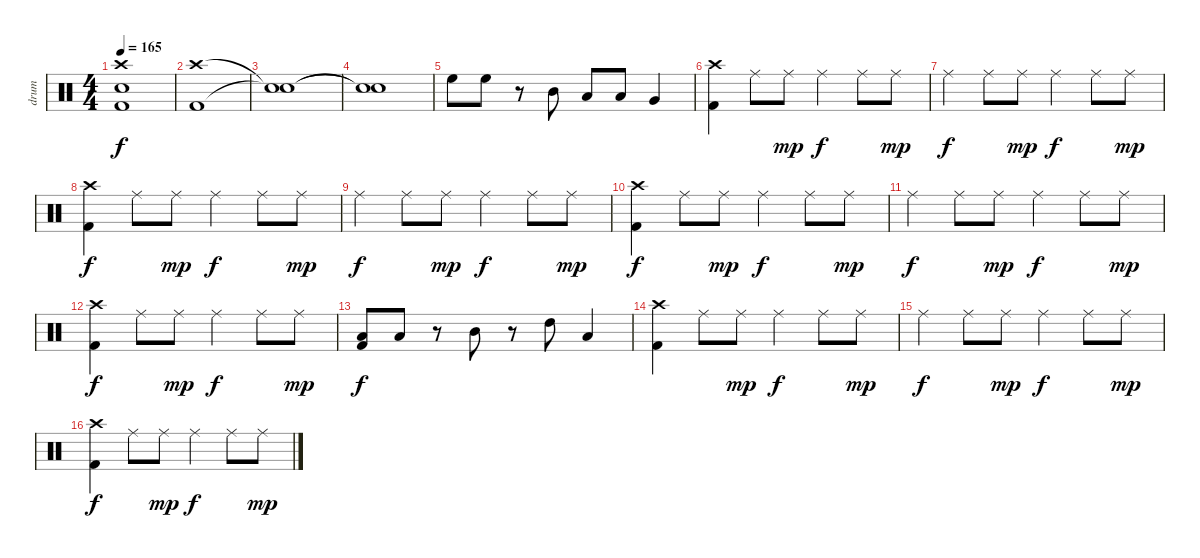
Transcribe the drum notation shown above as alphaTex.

\track ("drum" "drum") {instrument percussion}
\staff {score}
\articulation defaults
\ts (4 4)
\tempo 165
\clef neutral
\ks c
("Crash high (hit)" "Snare (hit) 2" "Kick (hit) 2").1{dy f} |
("Crash high (hit)" "Kick (hit) 2").1 |
("Snare (hit)"{t} "Snare (hit)"{t}).1 |
("Snare (hit)"{t} "Snare (hit)"{t}).1 |
"High Floor Tom (hit)".8 "High Floor Tom (hit)".8 r.8 "Mid Tom (hit)".8 "Low Tom (hit)".8 "Low Tom (hit)".8 "Very Low Tom (hit)".4 |
("Crash high (hit)" "Kick (hit) 2").4 "Ride (middle)".8 "Ride (middle)".8{dy mp} "Ride (middle)".4{dy f} "Ride (middle)".8 "Ride (middle)".8{dy mp} |
"Ride (middle)".4{dy f} "Ride (middle)".8 "Ride (middle)".8{dy mp} "Ride (middle)".4{dy f} "Ride (middle)".8 "Ride (middle)".8{dy mp} |
("Crash high (hit)" "Kick (hit) 2").4{dy f} "Ride (middle)".8 "Ride (middle)".8{dy mp} "Ride (middle)".4{dy f} "Ride (middle)".8 "Ride (middle)".8{dy mp} |
"Ride (middle)".4{dy f} "Ride (middle)".8 "Ride (middle)".8{dy mp} "Ride (middle)".4{dy f} "Ride (middle)".8 "Ride (middle)".8{dy mp} |
("Crash high (hit)" "Kick (hit) 2").4{dy f} "Ride (middle)".8 "Ride (middle)".8{dy mp} "Ride (middle)".4{dy f} "Ride (middle)".8 "Ride (middle)".8{dy mp} |
"Ride (middle)".4{dy f} "Ride (middle)".8 "Ride (middle)".8{dy mp} "Ride (middle)".4{dy f} "Ride (middle)".8 "Ride (middle)".8{dy mp} |
("Crash high (hit)" "Kick (hit) 2").4{dy f} "Ride (middle)".8 "Ride (middle)".8{dy mp} "Ride (middle)".4{dy f} "Ride (middle)".8 "Ride (middle)".8{dy mp} |
("Low Tom (hit)" "Kick (hit) 2").8{dy f} "Low Tom (hit)".8 r.8 "Mid Tom (hit)".8 r.8 "High Tom (hit)".8 "Low Tom (hit)".4 |
("Crash high (hit)" "Kick (hit) 2").4 "Ride (middle)".8 "Ride (middle)".8{dy mp} "Ride (middle)".4{dy f} "Ride (middle)".8 "Ride (middle)".8{dy mp} |
"Ride (middle)".4{dy f} "Ride (middle)".8 "Ride (middle)".8{dy mp} "Ride (middle)".4{dy f} "Ride (middle)".8 "Ride (middle)".8{dy mp} |
("Crash high (hit)" "Kick (hit) 2").4{dy f} "Ride (middle)".8 "Ride (middle)".8{dy mp} "Ride (middle)".4{dy f} "Ride (middle)".8 "Ride (middle)".8{dy mp}
